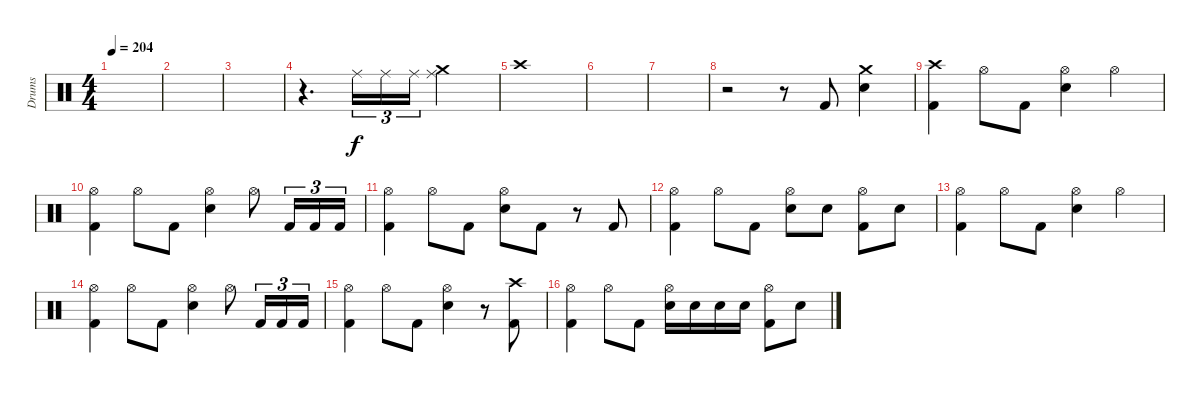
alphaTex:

\track ("Drums" "Drums") {instrument percussion}
\staff {score}
\articulation defaults
\ts (4 4)
\section ("" "")
\tempo 204
\clef neutral
\ks c
|
|
|
r.4{d} "Ride (middle)".16{tu (3 2)} "Ride (middle)".16{tu (3 2)} "Ride (middle)".16{tu (3 2)} ("Crash medium (hit)" "Ride (middle)").2 |
"Crash high (hit)".1 |
|
|
r.2 r.8 "Kick (hit) 2".8 ("Crash medium (hit)" "Electric Snare (hit)").4 |
\section ("" "")
("Crash high (hit)" "Kick (hit) 2").4 "Hi-Hat (open)".8 "Kick (hit) 2".8 ("Hi-Hat (open)" "Electric Snare (hit)").4 "Hi-Hat (open)".4 |
("Hi-Hat (open)" "Kick (hit) 2").4 "Hi-Hat (open)".8 "Kick (hit) 2".8 ("Hi-Hat (open)" "Electric Snare (hit)").4 "Hi-Hat (open)".8 "Kick (hit) 2".16{tu (3 2)} "Kick (hit) 2".16{tu (3 2)} "Kick (hit) 2".16{tu (3 2)} |
("Hi-Hat (open)" "Kick (hit) 2").4 "Hi-Hat (open)".8 "Kick (hit) 2".8 ("Hi-Hat (open)" "Electric Snare (hit)").8 "Kick (hit) 2".8 r.8 "Kick (hit) 2".8 |
("Hi-Hat (open)" "Kick (hit) 2").4 "Hi-Hat (open)".8 "Kick (hit) 2".8 ("Hi-Hat (open)" "Electric Snare (hit)").8 "Electric Snare (hit)".8 ("Hi-Hat (open)" "Kick (hit) 2").8 "Electric Snare (hit)".8 |
("Hi-Hat (open)" "Kick (hit) 2").4 "Hi-Hat (open)".8 "Kick (hit) 2".8 ("Hi-Hat (open)" "Electric Snare (hit)").4 "Hi-Hat (open)".4 |
("Hi-Hat (open)" "Kick (hit) 2").4 "Hi-Hat (open)".8 "Kick (hit) 2".8 ("Hi-Hat (open)" "Electric Snare (hit)").4 "Hi-Hat (open)".8 "Kick (hit) 2".16{tu (3 2)} "Kick (hit) 2".16{tu (3 2)} "Kick (hit) 2".16{tu (3 2)} |
("Hi-Hat (open)" "Kick (hit) 2").4 "Hi-Hat (open)".8 "Kick (hit) 2".8 ("Hi-Hat (open)" "Electric Snare (hit)").4 r.8 ("Crash high (hit)" "Kick (hit) 2").8 |
("Hi-Hat (open)" "Kick (hit) 2").4 "Hi-Hat (open)".8 "Kick (hit) 2".8 ("Hi-Hat (open)" "Electric Snare (hit)").16 "Electric Snare (hit)".16 "Electric Snare (hit)".16 "Electric Snare (hit)".16 ("Hi-Hat (open)" "Kick (hit) 2").8 "Electric Snare (hit)".8
